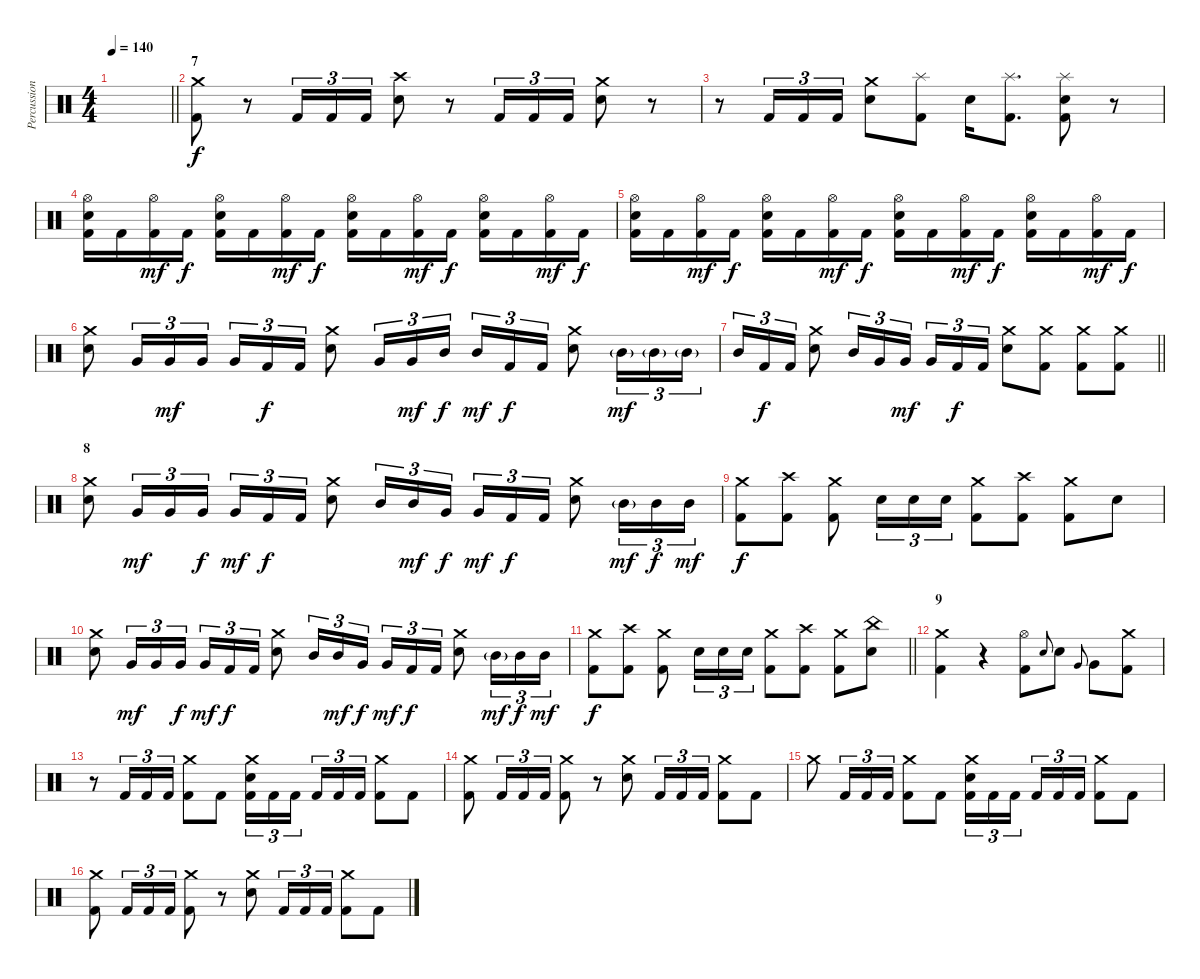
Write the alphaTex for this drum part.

\track ("Percussion" "Percussion") {instrument percussion}
\staff {score}
\articulation defaults
\ts (4 4)
\tempo 140
\clef neutral
\barLineRight lightlight
\ks c
|
\section ("" "7")
("Crash medium (hit)" "Kick (hit) 2").8{dy f} r.8 "Kick (hit) 2".16{tu (3 2)} "Kick (hit) 2".16{tu (3 2)} "Kick (hit) 2".16{tu (3 2)} ("Crash high (hit)" "Snare (hit) 2").8 r.8 "Kick (hit) 2".16{tu (3 2)} "Kick (hit) 2".16{tu (3 2)} "Kick (hit) 2".16{tu (3 2)} ("Crash medium (hit)" "Snare (hit) 2").8 r.8 |
r.8 "Kick (hit) 2".16{tu (3 2)} "Kick (hit) 2".16{tu (3 2)} "Kick (hit) 2".16{tu (3 2)} ("Crash medium (hit)" "Snare (hit) 2").8 ("Splash (hit)" "Kick (hit) 2").8 "Snare (hit) 2".16 ("Splash (hit)" "Kick (hit) 2").8{d} ("Splash (hit)" "Snare (hit) 2" "Kick (hit) 2").8 r.8 |
("Hi-Hat (open)" "Snare (hit) 2" "Kick (hit) 2").16 "Kick (hit) 2".16 ("Hi-Hat (open)" "Kick (hit) 2").16{dy mf} "Kick (hit) 2".16{dy f} ("Hi-Hat (open)" "Snare (hit) 2" "Kick (hit) 2").16 "Kick (hit) 2".16 ("Hi-Hat (open)" "Kick (hit) 2").16{dy mf} "Kick (hit) 2".16{dy f} ("Hi-Hat (open)" "Snare (hit) 2" "Kick (hit) 2").16 "Kick (hit) 2".16 ("Hi-Hat (open)" "Kick (hit) 2").16{dy mf} "Kick (hit) 2".16{dy f} ("Hi-Hat (open)" "Snare (hit) 2" "Kick (hit) 2").16 "Kick (hit) 2".16 ("Hi-Hat (open)" "Kick (hit) 2").16{dy mf} "Kick (hit) 2".16{dy f} |
("Hi-Hat (open)" "Snare (hit) 2" "Kick (hit) 2").16 "Kick (hit) 2".16 ("Hi-Hat (open)" "Kick (hit) 2").16{dy mf} "Kick (hit) 2".16{dy f} ("Hi-Hat (open)" "Snare (hit) 2" "Kick (hit) 2").16 "Kick (hit) 2".16 ("Hi-Hat (open)" "Kick (hit) 2").16{dy mf} "Kick (hit) 2".16{dy f} ("Hi-Hat (open)" "Snare (hit) 2" "Kick (hit) 2").16 "Kick (hit) 2".16 ("Hi-Hat (open)" "Kick (hit) 2").16{dy mf} "Kick (hit) 2".16{dy f} ("Hi-Hat (open)" "Snare (hit) 2" "Kick (hit) 2").16 "Kick (hit) 2".16 ("Hi-Hat (open)" "Kick (hit) 2").16{dy mf} "Kick (hit) 2".16{dy f} |
("Crash medium (hit)" "Snare (hit) 2").8 "Very Low Tom (hit)".16{tu (3 2)} "Very Low Tom (hit)".16{tu (3 2) dy mf} "Very Low Tom (hit)".16{tu (3 2)} "Very Low Tom (hit)".16{tu (3 2)} "Kick (hit) 2".16{tu (3 2) dy f} "Kick (hit) 2".16{tu (3 2)} ("Crash medium (hit)" "Snare (hit) 2").8 "Very Low Tom (hit)".16{tu (3 2)} "Very Low Tom (hit)".16{tu (3 2) dy mf} "Mid Tom (hit)".16{tu (3 2) dy f beam splitsecondary} "Mid Tom (hit)".16{tu (3 2) dy mf} "Kick (hit) 2".16{tu (3 2) dy f} "Kick (hit) 2".16{tu (3 2)} ("Crash medium (hit)" "Snare (hit) 2").8 "Mid Tom (hit)"{g}.16{tu (3 2) dy mf} "Mid Tom (hit)"{g}.16{tu (3 2)} "Mid Tom (hit)"{g}.16{tu (3 2)} |
\barLineRight lightlight "Mid Tom (hit)".16{tu (3 2)} "Kick (hit) 2".16{tu (3 2) dy f} "Kick (hit) 2".16{tu (3 2)}
("Crash medium (hit)" "Snare (hit) 2").8 "Mid Tom (hit)".16{tu (3 2)} "Very Low Tom (hit)".16{tu (3 2)} "Very Low Tom (hit)".16{tu (3 2) dy mf beam splitsecondary} "Very Low Tom (hit)".16{tu (3 2)} "Kick (hit) 2".16{tu (3 2) dy f} "Kick (hit) 2".16{tu (3 2)} ("Crash medium (hit)" "Snare (hit) 2").8 ("Crash medium (hit)" "Kick (hit) 2").8 ("Crash medium (hit)" "Kick (hit) 2").8 ("Crash medium (hit)" "Kick (hit) 2").8 |
\section ("" "8")
("Crash medium (hit)" "Snare (hit) 2").8 "Very Low Tom (hit)".16{tu (3 2) dy mf} "Very Low Tom (hit)".16{tu (3 2)} "Very Low Tom (hit)".16{tu (3 2) dy f} "Very Low Tom (hit)".16{tu (3 2) dy mf} "Kick (hit) 2".16{tu (3 2) dy f} "Kick (hit) 2".16{tu (3 2)} ("Crash medium (hit)" "Snare (hit) 2").8 "Mid Tom (hit)".16{tu (3 2)} "Mid Tom (hit)".16{tu (3 2) dy mf} "Very Low Tom (hit)".16{tu (3 2) dy f beam splitsecondary} "Very Low Tom (hit)".16{tu (3 2) dy mf} "Kick (hit) 2".16{tu (3 2) dy f} "Kick (hit) 2".16{tu (3 2)} ("Crash medium (hit)" "Snare (hit) 2").8 "Mid Tom (hit)"{g}.16{tu (3 2) dy mf} "Mid Tom (hit)".16{tu (3 2) dy f} "Mid Tom (hit)".16{tu (3 2) dy mf} |
("Crash medium (hit)" "Kick (hit) 2").8{dy f} ("Crash high (hit)" "Kick (hit) 2").8 ("Crash medium (hit)" "Kick (hit) 2").8 "Snare (hit) 2".16{tu (3 2)} "Snare (hit) 2".16{tu (3 2)} "Snare (hit) 2".16{tu (3 2)} ("Crash medium (hit)" "Kick (hit) 2").8 ("Crash high (hit)" "Kick (hit) 2").8 ("Crash medium (hit)" "Kick (hit) 2").8 "Snare (hit) 2".8 |
("Crash medium (hit)" "Snare (hit) 2").8 "Very Low Tom (hit)".16{tu (3 2) dy mf} "Very Low Tom (hit)".16{tu (3 2)} "Very Low Tom (hit)".16{tu (3 2) dy f} "Very Low Tom (hit)".16{tu (3 2) dy mf} "Kick (hit) 2".16{tu (3 2) dy f} "Kick (hit) 2".16{tu (3 2)} ("Crash medium (hit)" "Snare (hit) 2").8 "Mid Tom (hit)".16{tu (3 2)} "Mid Tom (hit)".16{tu (3 2) dy mf} "Very Low Tom (hit)".16{tu (3 2) dy f beam splitsecondary} "Very Low Tom (hit)".16{tu (3 2) dy mf} "Kick (hit) 2".16{tu (3 2) dy f} "Kick (hit) 2".16{tu (3 2)} ("Crash medium (hit)" "Snare (hit) 2").8 "Mid Tom (hit)"{g}.16{tu (3 2) dy mf} "Mid Tom (hit)".16{tu (3 2) dy f} "Mid Tom (hit)".16{tu (3 2) dy mf} |
\barLineRight lightlight
("Crash medium (hit)" "Kick (hit) 2").8{dy f} ("Crash high (hit)" "Kick (hit) 2").8 ("Crash medium (hit)" "Kick (hit) 2").8 "Snare (hit) 2".16{tu (3 2)} "Snare (hit) 2".16{tu (3 2)} "Snare (hit) 2".16{tu (3 2)} ("Crash medium (hit)" "Kick (hit) 2").8 ("Crash high (hit)" "Kick (hit) 2").8 ("Crash medium (hit)" "Kick (hit) 2").8 ("China (hit)" "Snare (hit) 2").8 |
\section ("" "9")
("Crash medium (hit)" "Kick (hit) 2").4 r.4 ("Hi-Hat (open)" "Kick (hit) 2").8 "Snare (hit) 2".8{gr onbeat} "Snare (hit) 2".8 "Very Low Tom (hit)".8{gr onbeat} "Very Low Tom (hit)".8 ("Crash medium (hit)" "Kick (hit) 2").8 |
r.8 "Kick (hit) 2".16{tu (3 2)} "Kick (hit) 2".16{tu (3 2)} "Kick (hit) 2".16{tu (3 2)} ("Crash medium (hit)" "Kick (hit) 2").8 "Kick (hit) 2".8 ("Crash medium (hit)" "Snare (hit) 2" "Kick (hit) 2").16{tu (3 2)} "Kick (hit) 2".16{tu (3 2)} "Kick (hit) 2".16{tu (3 2) beam splitsecondary} "Kick (hit) 2".16{tu (3 2)} "Kick (hit) 2".16{tu (3 2)} "Kick (hit) 2".16{tu (3 2)} ("Crash medium (hit)" "Kick (hit) 2").8 "Kick (hit) 2".8 |
("Crash medium (hit)" "Kick (hit) 2").8 "Kick (hit) 2".16{tu (3 2)} "Kick (hit) 2".16{tu (3 2)} "Kick (hit) 2".16{tu (3 2)} ("Crash medium (hit)" "Kick (hit) 2").8 r.8 ("Crash medium (hit)" "Snare (hit) 2").8 "Kick (hit) 2".16{tu (3 2)} "Kick (hit) 2".16{tu (3 2)} "Kick (hit) 2".16{tu (3 2)} ("Crash medium (hit)" "Kick (hit) 2").8 "Kick (hit) 2".8 |
"Crash medium (hit)".8 "Kick (hit) 2".16{tu (3 2)} "Kick (hit) 2".16{tu (3 2)} "Kick (hit) 2".16{tu (3 2)} ("Crash medium (hit)" "Kick (hit) 2").8 "Kick (hit) 2".8 ("Crash medium (hit)" "Snare (hit) 2" "Kick (hit) 2").16{tu (3 2)} "Kick (hit) 2".16{tu (3 2)} "Kick (hit) 2".16{tu (3 2) beam splitsecondary} "Kick (hit) 2".16{tu (3 2)} "Kick (hit) 2".16{tu (3 2)} "Kick (hit) 2".16{tu (3 2)} ("Crash medium (hit)" "Kick (hit) 2").8 "Kick (hit) 2".8 |
("Crash medium (hit)" "Kick (hit) 2").8 "Kick (hit) 2".16{tu (3 2)} "Kick (hit) 2".16{tu (3 2)} "Kick (hit) 2".16{tu (3 2)} ("Crash medium (hit)" "Kick (hit) 2").8 r.8 ("Crash medium (hit)" "Snare (hit) 2").8 "Kick (hit) 2".16{tu (3 2)} "Kick (hit) 2".16{tu (3 2)} "Kick (hit) 2".16{tu (3 2)} ("Crash medium (hit)" "Kick (hit) 2").8 "Kick (hit) 2".8
